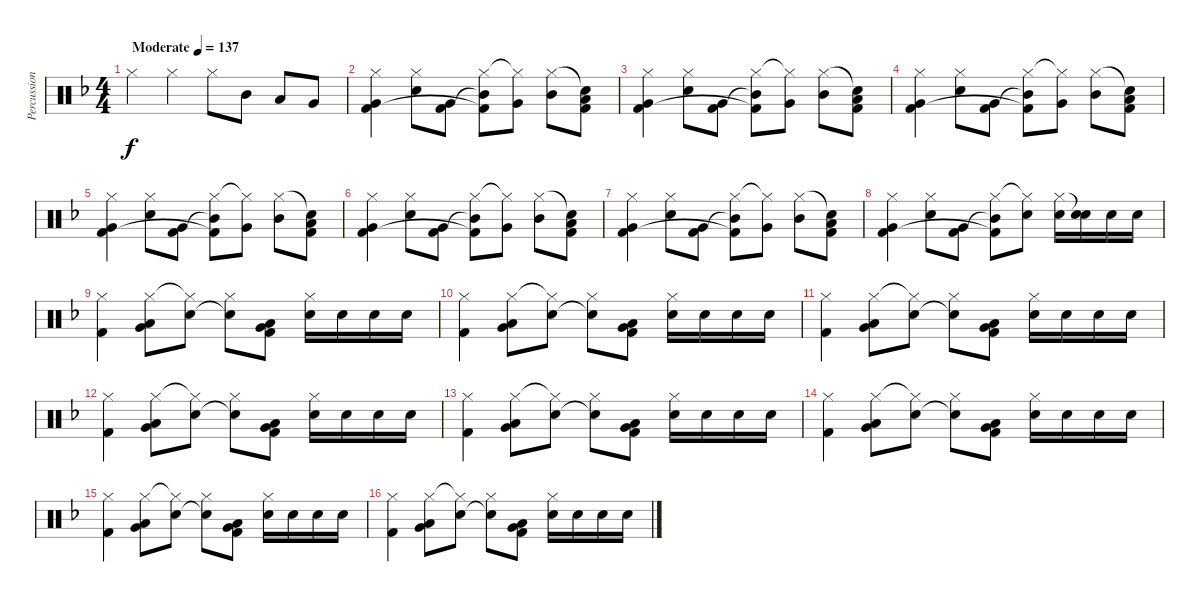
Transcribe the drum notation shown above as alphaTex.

\track ("Percussion" "Percussion") {instrument percussion}
\staff {score}
\articulation defaults
\ts (4 4)
\tempo (137 "Moderate")
\clef neutral
\ks f "Hi-Hat (closed)".4{dy f} "Hi-Hat (closed)".4 "Hi-Hat (closed)".8 "Mid Tom (hit)".8 "Low Tom (hit)".8 "Very Low Tom (hit)".8
|
("Hi-Hat (closed)" "Very Low Tom (hit)" "Kick (hit) 2").4 ("Hi-Hat (closed)" "Electric Snare (hit)").8 ("Very Low Tom (hit)" "Kick (hit) 2").8 ("Hi-Hat (closed)" "Mid Tom (hit)"{t} "Kick (hit) 2"{t}).8 ("Hi-Hat (closed)"{t} "Very Low Tom (hit)").8 ("Hi-Hat (closed)" "Mid Tom (hit)").8 ("Snare (hit)"{t} "Low Tom (hit)" "Kick (hit) 2").8 |
("Hi-Hat (closed)" "Very Low Tom (hit)" "Kick (hit) 2").4 ("Hi-Hat (closed)" "Electric Snare (hit)").8 ("Very Low Tom (hit)" "Kick (hit) 2").8 ("Hi-Hat (closed)" "Mid Tom (hit)"{t} "Kick (hit) 2"{t}).8 ("Hi-Hat (closed)"{t} "Very Low Tom (hit)").8 ("Hi-Hat (closed)" "Mid Tom (hit)").8 ("Snare (hit)"{t} "Low Tom (hit)" "Kick (hit) 2").8 |
("Hi-Hat (closed)" "Very Low Tom (hit)" "Kick (hit) 2").4 ("Hi-Hat (closed)" "Electric Snare (hit)").8 ("Very Low Tom (hit)" "Kick (hit) 2").8 ("Hi-Hat (closed)" "Mid Tom (hit)"{t} "Kick (hit) 2"{t}).8 ("Hi-Hat (closed)"{t} "Very Low Tom (hit)").8 ("Hi-Hat (closed)" "Mid Tom (hit)").8 ("Snare (hit)"{t} "Low Tom (hit)" "Kick (hit) 2").8 |
("Hi-Hat (closed)" "Very Low Tom (hit)" "Kick (hit) 2").4 ("Hi-Hat (closed)" "Electric Snare (hit)").8 ("Very Low Tom (hit)" "Kick (hit) 2").8 ("Hi-Hat (closed)" "Mid Tom (hit)"{t} "Kick (hit) 2"{t}).8 ("Hi-Hat (closed)"{t} "Very Low Tom (hit)").8 ("Hi-Hat (closed)" "Mid Tom (hit)").8 ("Snare (hit)"{t} "Low Tom (hit)" "Kick (hit) 2").8 |
("Hi-Hat (closed)" "Very Low Tom (hit)" "Kick (hit) 2").4 ("Hi-Hat (closed)" "Electric Snare (hit)").8 ("Very Low Tom (hit)" "Kick (hit) 2").8 ("Hi-Hat (closed)" "Mid Tom (hit)"{t} "Kick (hit) 2"{t}).8 ("Hi-Hat (closed)"{t} "Very Low Tom (hit)").8 ("Hi-Hat (closed)" "Mid Tom (hit)").8 ("Snare (hit)"{t} "Low Tom (hit)" "Kick (hit) 2").8 |
("Hi-Hat (closed)" "Very Low Tom (hit)" "Kick (hit) 2").4 ("Hi-Hat (closed)" "Electric Snare (hit)").8 ("Very Low Tom (hit)" "Kick (hit) 2").8 ("Hi-Hat (closed)" "Mid Tom (hit)"{t} "Kick (hit) 2"{t}).8 ("Hi-Hat (closed)"{t} "Very Low Tom (hit)").8 ("Hi-Hat (closed)" "Mid Tom (hit)").8 ("Snare (hit)"{t} "Low Tom (hit)" "Kick (hit) 2").8 |
("Hi-Hat (closed)" "Very Low Tom (hit)" "Kick (hit) 2").4 ("Hi-Hat (closed)" "Electric Snare (hit)").8 ("Very Low Tom (hit)" "Kick (hit) 2").8 ("Hi-Hat (closed)" "Mid Tom (hit)"{t} "Kick (hit) 2"{t}).8 ("Hi-Hat (closed)"{t} "Electric Snare (hit)").8 ("Hi-Hat (closed)" "Electric Snare (hit)").16 ("Snare (hit)"{t} "Electric Snare (hit)").16 "Electric Snare (hit)".16 "Electric Snare (hit)".16 |
("Hi-Hat (closed)" "Kick (hit) 2").4 ("Hi-Hat (closed)" "Very Low Tom (hit)" "Low Floor Tom (hit)").8 ("Hi-Hat (closed)"{t} "Electric Snare (hit)").8 ("Hi-Hat (closed)" "Electric Snare (hit)"{t}).8 ("Very Low Tom (hit)" "Low Floor Tom (hit)" "Kick (hit) 2").8 ("Hi-Hat (closed)" "Electric Snare (hit)").16 "Electric Snare (hit)".16 "Electric Snare (hit)".16 "Electric Snare (hit)".16 |
("Hi-Hat (closed)" "Kick (hit) 2").4 ("Hi-Hat (closed)" "Very Low Tom (hit)" "Low Floor Tom (hit)").8 ("Hi-Hat (closed)"{t} "Electric Snare (hit)").8 ("Hi-Hat (closed)" "Electric Snare (hit)"{t}).8 ("Very Low Tom (hit)" "Low Floor Tom (hit)" "Kick (hit) 2").8 ("Hi-Hat (closed)" "Electric Snare (hit)").16 "Electric Snare (hit)".16 "Electric Snare (hit)".16 "Electric Snare (hit)".16 |
("Hi-Hat (closed)" "Kick (hit) 2").4 ("Hi-Hat (closed)" "Very Low Tom (hit)" "Low Floor Tom (hit)").8 ("Hi-Hat (closed)"{t} "Electric Snare (hit)").8 ("Hi-Hat (closed)" "Electric Snare (hit)"{t}).8 ("Very Low Tom (hit)" "Low Floor Tom (hit)" "Kick (hit) 2").8 ("Hi-Hat (closed)" "Electric Snare (hit)").16 "Electric Snare (hit)".16 "Electric Snare (hit)".16 "Electric Snare (hit)".16 |
("Hi-Hat (closed)" "Kick (hit) 2").4 ("Hi-Hat (closed)" "Very Low Tom (hit)" "Low Floor Tom (hit)").8 ("Hi-Hat (closed)"{t} "Electric Snare (hit)").8 ("Hi-Hat (closed)" "Electric Snare (hit)"{t}).8 ("Very Low Tom (hit)" "Low Floor Tom (hit)" "Kick (hit) 2").8 ("Hi-Hat (closed)" "Electric Snare (hit)").16 "Electric Snare (hit)".16 "Electric Snare (hit)".16 "Electric Snare (hit)".16 |
("Hi-Hat (closed)" "Kick (hit) 2").4 ("Hi-Hat (closed)" "Very Low Tom (hit)" "Low Floor Tom (hit)").8 ("Hi-Hat (closed)"{t} "Electric Snare (hit)").8 ("Hi-Hat (closed)" "Electric Snare (hit)"{t}).8 ("Very Low Tom (hit)" "Low Floor Tom (hit)" "Kick (hit) 2").8 ("Hi-Hat (closed)" "Electric Snare (hit)").16 "Electric Snare (hit)".16 "Electric Snare (hit)".16 "Electric Snare (hit)".16 |
("Hi-Hat (closed)" "Kick (hit) 2").4 ("Hi-Hat (closed)" "Very Low Tom (hit)" "Low Floor Tom (hit)").8 ("Hi-Hat (closed)"{t} "Electric Snare (hit)").8 ("Hi-Hat (closed)" "Electric Snare (hit)"{t}).8 ("Very Low Tom (hit)" "Low Floor Tom (hit)" "Kick (hit) 2").8 ("Hi-Hat (closed)" "Electric Snare (hit)").16 "Electric Snare (hit)".16 "Electric Snare (hit)".16 "Electric Snare (hit)".16 |
("Hi-Hat (closed)" "Kick (hit) 2").4 ("Hi-Hat (closed)" "Very Low Tom (hit)" "Low Floor Tom (hit)").8 ("Hi-Hat (closed)"{t} "Electric Snare (hit)").8 ("Hi-Hat (closed)" "Electric Snare (hit)"{t}).8 ("Very Low Tom (hit)" "Low Floor Tom (hit)" "Kick (hit) 2").8 ("Hi-Hat (closed)" "Electric Snare (hit)").16 "Electric Snare (hit)".16 "Electric Snare (hit)".16 "Electric Snare (hit)".16 |
("Hi-Hat (closed)" "Kick (hit) 2").4 ("Hi-Hat (closed)" "Very Low Tom (hit)" "Low Floor Tom (hit)").8 ("Hi-Hat (closed)"{t} "Electric Snare (hit)").8 ("Hi-Hat (closed)" "Electric Snare (hit)"{t}).8 ("Very Low Tom (hit)" "Low Floor Tom (hit)" "Kick (hit) 2").8 ("Hi-Hat (closed)" "Electric Snare (hit)").16 "Electric Snare (hit)".16 "Electric Snare (hit)".16 "Electric Snare (hit)".16
